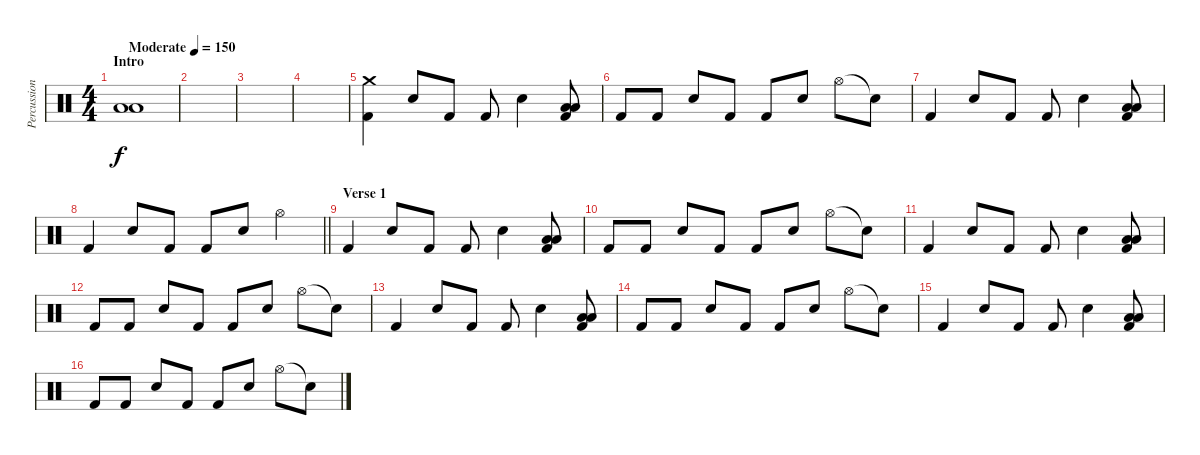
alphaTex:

\track ("Percussion" "Percussion") {instrument percussion}
\staff {score}
\articulation defaults
\ts (4 4)
\section ("" "Intro")
\tempo (150 "Moderate")
\clef neutral
\ks c
("Low Tom (hit)" "Low Floor Tom (hit)").1{dy f} |
|
|
|
("Crash medium (hit)" "Kick (hit) 2").4 "Electric Snare (hit)".8 "Kick (hit) 2".8 "Kick (hit) 2".8 "Electric Snare (hit)".4 ("Kick (hit) 2" "Low Tom (hit)" "Low Floor Tom (hit)").8 |
"Kick (hit) 2".8 "Kick (hit) 2".8 "Electric Snare (hit)".8 "Kick (hit) 2".8 "Kick (hit) 2".8 "Electric Snare (hit)".8 "Hi-Hat (open)".8 "Snare (hit)"{t}.8 |
"Kick (hit) 2".4 "Electric Snare (hit)".8 "Kick (hit) 2".8 "Kick (hit) 2".8 "Electric Snare (hit)".4 ("Kick (hit) 2" "Low Tom (hit)" "Low Floor Tom (hit)").8 |
\barLineRight lightlight "Kick (hit) 2".4 "Electric Snare (hit)".8 "Kick (hit) 2".8 "Kick (hit) 2".8 "Electric Snare (hit)".8 "Hi-Hat (open)".4
|
\section ("" "Verse 1")
"Kick (hit) 2".4 "Electric Snare (hit)".8 "Kick (hit) 2".8 "Kick (hit) 2".8 "Electric Snare (hit)".4 ("Kick (hit) 2" "Low Tom (hit)" "Low Floor Tom (hit)").8 |
"Kick (hit) 2".8 "Kick (hit) 2".8 "Electric Snare (hit)".8 "Kick (hit) 2".8 "Kick (hit) 2".8 "Electric Snare (hit)".8 "Hi-Hat (open)".8 "Snare (hit)"{t}.8 |
"Kick (hit) 2".4 "Electric Snare (hit)".8 "Kick (hit) 2".8 "Kick (hit) 2".8 "Electric Snare (hit)".4 ("Kick (hit) 2" "Low Tom (hit)" "Low Floor Tom (hit)").8 |
"Kick (hit) 2".8 "Kick (hit) 2".8 "Electric Snare (hit)".8 "Kick (hit) 2".8 "Kick (hit) 2".8 "Electric Snare (hit)".8 "Hi-Hat (open)".8 "Snare (hit)"{t}.8 |
"Kick (hit) 2".4 "Electric Snare (hit)".8 "Kick (hit) 2".8 "Kick (hit) 2".8 "Electric Snare (hit)".4 ("Kick (hit) 2" "Low Tom (hit)" "Low Floor Tom (hit)").8 |
"Kick (hit) 2".8 "Kick (hit) 2".8 "Electric Snare (hit)".8 "Kick (hit) 2".8 "Kick (hit) 2".8 "Electric Snare (hit)".8 "Hi-Hat (open)".8 "Snare (hit)"{t}.8 |
"Kick (hit) 2".4 "Electric Snare (hit)".8 "Kick (hit) 2".8 "Kick (hit) 2".8 "Electric Snare (hit)".4 ("Kick (hit) 2" "Low Tom (hit)" "Low Floor Tom (hit)").8 |
"Kick (hit) 2".8 "Kick (hit) 2".8 "Electric Snare (hit)".8 "Kick (hit) 2".8 "Kick (hit) 2".8 "Electric Snare (hit)".8 "Hi-Hat (open)".8 "Snare (hit)"{t}.8
